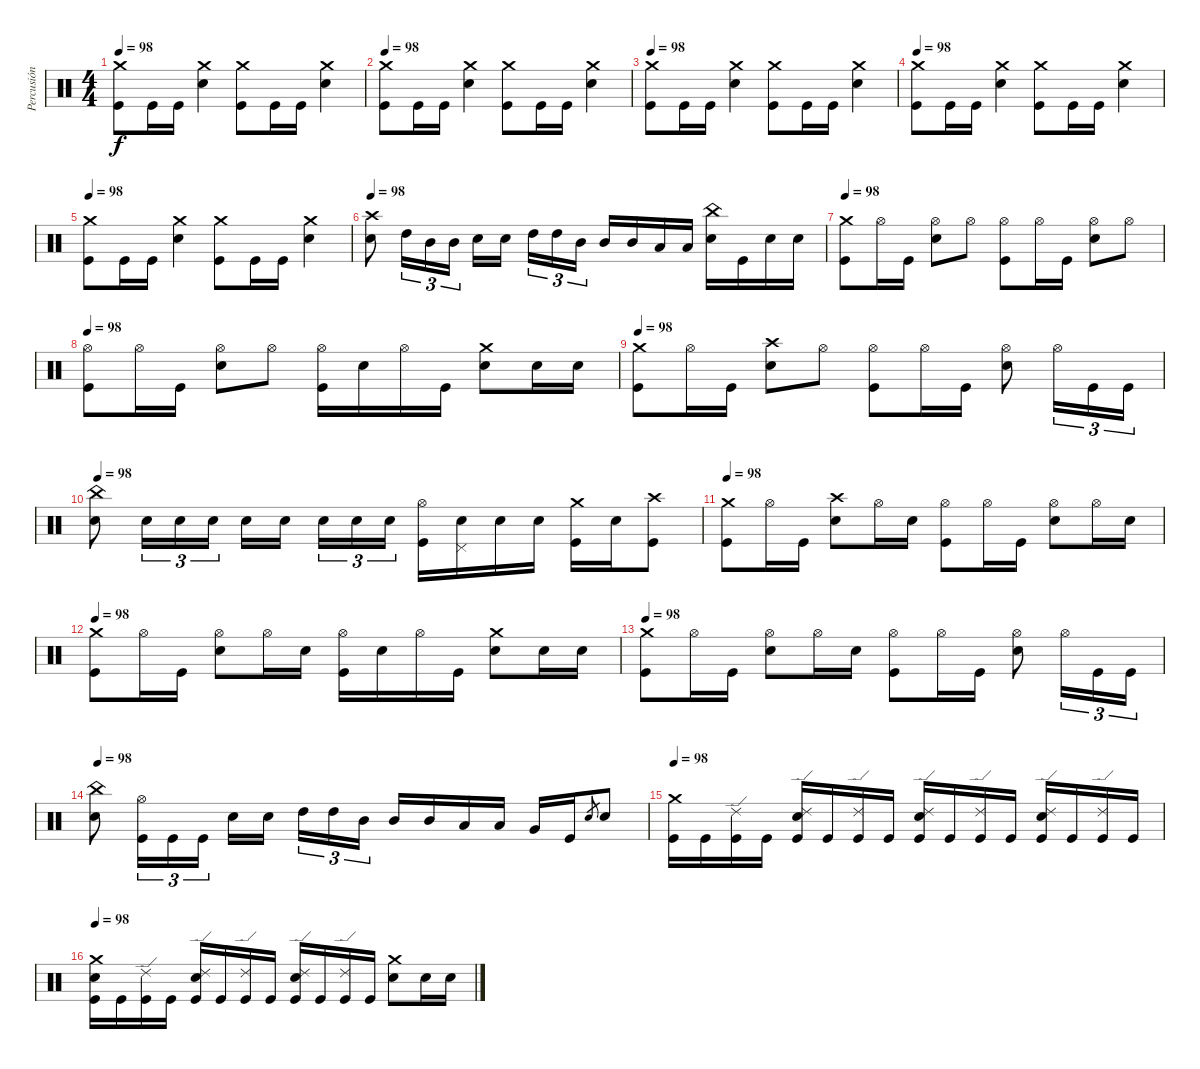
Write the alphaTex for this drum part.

\track ("Percusión" "Percusión") {instrument percussion}
\staff {score}
\articulation defaults
\ts (4 4)
\tempo 98
\clef neutral
\ks c
("Crash medium (hit)" "Kick (hit)").8{dy f} "Kick (hit)".16 "Kick (hit)".16 ("Crash medium (hit)" "Electric Snare (hit)").4 ("Crash medium (hit)" "Kick (hit)").8 "Kick (hit)".16 "Kick (hit)".16 ("Crash medium (hit)" "Electric Snare (hit)").4 |
\tempo 98
("Crash medium (hit)" "Kick (hit)").8 "Kick (hit)".16 "Kick (hit)".16 ("Crash medium (hit)" "Electric Snare (hit)").4 ("Crash medium (hit)" "Kick (hit)").8 "Kick (hit)".16 "Kick (hit)".16 ("Crash medium (hit)" "Electric Snare (hit)").4 |
\tempo 98
("Crash medium (hit)" "Kick (hit)").8 "Kick (hit)".16 "Kick (hit)".16 ("Crash medium (hit)" "Electric Snare (hit)").4 ("Crash medium (hit)" "Kick (hit)").8 "Kick (hit)".16 "Kick (hit)".16 ("Crash medium (hit)" "Electric Snare (hit)").4 |
\tempo 98
("Crash medium (hit)" "Kick (hit)").8 "Kick (hit)".16 "Kick (hit)".16 ("Crash medium (hit)" "Electric Snare (hit)").4 ("Crash medium (hit)" "Kick (hit)").8 "Kick (hit)".16 "Kick (hit)".16 ("Crash medium (hit)" "Electric Snare (hit)").4 |
\tempo 98
("Crash medium (hit)" "Kick (hit)").8 "Kick (hit)".16 "Kick (hit)".16 ("Crash medium (hit)" "Electric Snare (hit)").4 ("Crash medium (hit)" "Kick (hit)").8 "Kick (hit)".16 "Kick (hit)".16 ("Crash medium (hit)" "Electric Snare (hit)").4 |
\tempo 98
("Crash high (hit)" "Electric Snare (hit)").8 "High Tom (hit)".16{tu (3 2)} "Mid Tom (hit)".16{tu (3 2)} "Mid Tom (hit)".16{tu (3 2)} "Electric Snare (hit)".16 "Electric Snare (hit)".16 "High Tom (hit)".16{tu (3 2)} "High Tom (hit)".16{tu (3 2)} "Mid Tom (hit)".16{tu (3 2)} "Mid Tom (hit)".16 "Mid Tom (hit)".16 "Low Tom (hit)".16 "Low Tom (hit)".16 ("China (hit)" "Electric Snare (hit)").16 "Kick (hit)".16 "Electric Snare (hit)".16 "Electric Snare (hit)".16 |
\tempo 98
("Crash medium (hit)" "Kick (hit)").8 "Hi-Hat (open)".16 "Kick (hit)".16 ("Hi-Hat (open)" "Electric Snare (hit)").8 "Hi-Hat (open)".8 ("Hi-Hat (open)" "Kick (hit)").8 "Hi-Hat (open)".16 "Kick (hit)".16 ("Hi-Hat (open)" "Electric Snare (hit)").8 "Hi-Hat (open)".8 |
\tempo 98
("Hi-Hat (open)" "Kick (hit)").8 "Hi-Hat (open)".16 "Kick (hit)".16 ("Hi-Hat (open)" "Electric Snare (hit)").8 "Hi-Hat (open)".8 ("Hi-Hat (open)" "Kick (hit)").16 "Electric Snare (hit)".16 "Hi-Hat (open)".16 "Kick (hit)".16 ("Crash medium (hit)" "Electric Snare (hit)").8 "Electric Snare (hit)".16 "Electric Snare (hit)".16 |
\tempo 98
("Crash medium (hit)" "Kick (hit)").8 "Hi-Hat (open)".16 "Kick (hit)".16 ("Crash high (hit)" "Electric Snare (hit)").8 "Hi-Hat (open)".8 ("Hi-Hat (open)" "Kick (hit)").8 "Hi-Hat (open)".16 "Kick (hit)".16 ("Hi-Hat (open)" "Electric Snare (hit)").8 "Hi-Hat (open)".16{tu (3 2)} "Kick (hit)".16{tu (3 2)} "Kick (hit)".16{tu (3 2)} |
\tempo 98
("China (hit)" "Electric Snare (hit)").8 "Electric Snare (hit)".16{tu (3 2)} "Electric Snare (hit)".16{tu (3 2)} "Electric Snare (hit)".16{tu (3 2)} "Electric Snare (hit)".16 "Electric Snare (hit)".16 "Electric Snare (hit)".16{tu (3 2)} "Electric Snare (hit)".16{tu (3 2)} "Electric Snare (hit)".16{tu (3 2)} ("Hi-Hat (open)" "Kick (hit)").16 ("Pedal Hi-Hat (hit)" "Electric Snare (hit)").16 "Electric Snare (hit)".16 "Electric Snare (hit)".16 ("Crash medium (hit)" "Kick (hit)").16 "Electric Snare (hit)".16 ("Crash high (hit)" "Kick (hit)").8 |
\tempo 98
("Crash medium (hit)" "Kick (hit)").8 "Hi-Hat (open)".16 "Kick (hit)".16 ("Crash high (hit)" "Electric Snare (hit)").8 "Hi-Hat (open)".16 "Electric Snare (hit)".16 ("Hi-Hat (open)" "Kick (hit)").8 "Hi-Hat (open)".16 "Kick (hit)".16 ("Hi-Hat (open)" "Electric Snare (hit)").8 "Hi-Hat (open)".16 "Electric Snare (hit)".16 |
\tempo 98
("Crash medium (hit)" "Kick (hit)").8 "Hi-Hat (open)".16 "Kick (hit)".16 ("Hi-Hat (open)" "Electric Snare (hit)").8 "Hi-Hat (open)".16 "Electric Snare (hit)".16 ("Hi-Hat (open)" "Kick (hit)").16 "Electric Snare (hit)".16 "Hi-Hat (open)".16 "Kick (hit)".16 ("Crash medium (hit)" "Electric Snare (hit)").8 "Electric Snare (hit)".16 "Electric Snare (hit)".16 |
\tempo 98
("Crash medium (hit)" "Kick (hit)").8 "Hi-Hat (open)".16 "Kick (hit)".16 ("Hi-Hat (open)" "Electric Snare (hit)").8 "Hi-Hat (open)".16 "Electric Snare (hit)".16 ("Hi-Hat (open)" "Kick (hit)").8 "Hi-Hat (open)".16 "Kick (hit)".16 ("Hi-Hat (open)" "Electric Snare (hit)").8 "Hi-Hat (open)".16{tu (3 2)} "Kick (hit)".16{tu (3 2)} "Kick (hit)".16{tu (3 2)} |
\tempo 98
("China (hit)" "Electric Snare (hit)").8 ("Hi-Hat (open)" "Kick (hit)").16{tu (3 2)} "Kick (hit)".16{tu (3 2)} "Kick (hit)".16{tu (3 2)} "Electric Snare (hit)".16 "Electric Snare (hit)".16 "High Tom (hit)".16{tu (3 2)} "High Tom (hit)".16{tu (3 2)} "Mid Tom (hit)".16{tu (3 2)} "Mid Tom (hit)".16 "Mid Tom (hit)".16 "Low Tom (hit)".16 "Low Tom (hit)".16 "Very Low Tom (hit)".16 "Kick (hit)".16 "Electric Snare (hit)".8{gr} "Electric Snare (hit)".8 |
\tempo 98
("Crash medium (hit)" "Kick (hit)").16 "Kick (hit)".16 ("Ride (edge) 2" "Kick (hit)").16 "Kick (hit)".16 ("Ride (edge) 2" "Electric Snare (hit)" "Kick (hit)").16 "Kick (hit)".16 ("Ride (edge) 2" "Kick (hit)").16 "Kick (hit)".16 ("Ride (edge) 2" "Electric Snare (hit)" "Kick (hit)").16 "Kick (hit)".16 ("Ride (edge) 2" "Kick (hit)").16 "Kick (hit)".16 ("Ride (edge) 2" "Electric Snare (hit)" "Kick (hit)").16 "Kick (hit)".16 ("Ride (edge) 2" "Kick (hit)").16 "Kick (hit)".16 |
\tempo 98
("Crash medium (hit)" "Electric Snare (hit)" "Kick (hit)").16 "Kick (hit)".16 ("Ride (edge) 2" "Kick (hit)").16 "Kick (hit)".16 ("Ride (edge) 2" "Electric Snare (hit)" "Kick (hit)").16 "Kick (hit)".16 ("Ride (edge) 2" "Kick (hit)").16 "Kick (hit)".16 ("Ride (edge) 2" "Electric Snare (hit)" "Kick (hit)").16 "Kick (hit)".16 ("Ride (edge) 2" "Kick (hit)").16 "Kick (hit)".16 ("Crash medium (hit)" "Electric Snare (hit)").8 "Electric Snare (hit)".16 "Electric Snare (hit)".16
